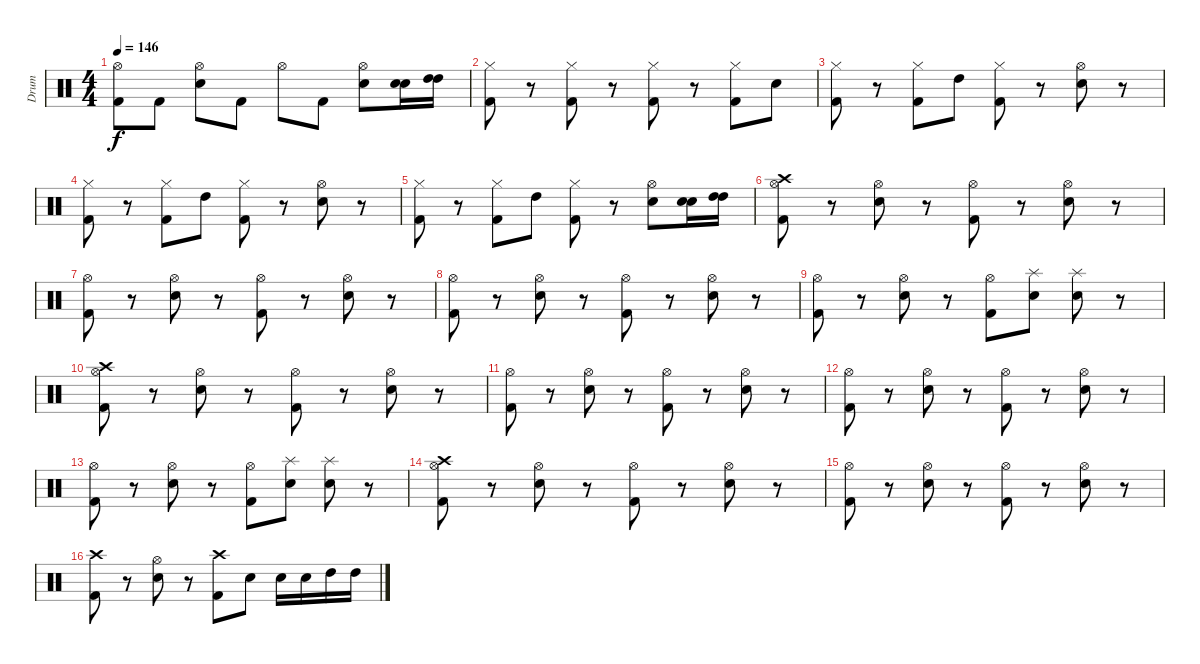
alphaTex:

\track ("Drum" "Drum") {instrument percussion}
\staff {score}
\articulation defaults
\ts (4 4)
\tempo 146
\clef neutral
\ks c
("Hi-Hat (open)" "Kick (hit) 2").8{dy f} "Kick (hit) 2".8 ("Hi-Hat (open)" "Electric Snare (hit)").8 "Kick (hit) 2".8 "Hi-Hat (open)".8 "Kick (hit) 2".8 ("Hi-Hat (open)" "Electric Snare (hit)").8 ("Electric Snare (hit)" "Electric Snare (hit)").16 ("High Tom (hit)" "High Tom (hit)").16 |
("Hi-Hat (closed)" "Kick (hit) 2").8 r.8 ("Hi-Hat (closed)" "Kick (hit) 2").8 r.8 ("Hi-Hat (closed)" "Kick (hit) 2").8 r.8 ("Hi-Hat (closed)" "Kick (hit) 2").8 "Electric Snare (hit)".8 |
("Hi-Hat (closed)" "Kick (hit) 2").8 r.8 ("Hi-Hat (closed)" "Kick (hit) 2").8 "High Tom (hit)".8 ("Hi-Hat (closed)" "Kick (hit) 2").8 r.8 ("Hi-Hat (open)" "Electric Snare (hit)").8 r.8 |
("Hi-Hat (closed)" "Kick (hit) 2").8 r.8 ("Hi-Hat (closed)" "Kick (hit) 2").8 "High Tom (hit)".8 ("Hi-Hat (closed)" "Kick (hit) 2").8 r.8 ("Hi-Hat (open)" "Electric Snare (hit)").8 r.8 |
("Hi-Hat (closed)" "Kick (hit) 2").8 r.8 ("Hi-Hat (closed)" "Kick (hit) 2").8 "High Tom (hit)".8 ("Hi-Hat (closed)" "Kick (hit) 2").8 r.8 ("Hi-Hat (open)" "Electric Snare (hit)").8 ("Electric Snare (hit)" "Electric Snare (hit)").16 ("High Tom (hit)" "High Tom (hit)").16 |
("Crash high (hit)" "Hi-Hat (open)" "Kick (hit) 2").8 r.8 ("Hi-Hat (open)" "Electric Snare (hit)").8 r.8 ("Hi-Hat (open)" "Kick (hit) 2").8 r.8 ("Hi-Hat (open)" "Electric Snare (hit)").8 r.8 |
("Hi-Hat (open)" "Kick (hit) 2").8 r.8 ("Hi-Hat (open)" "Electric Snare (hit)").8 r.8 ("Hi-Hat (open)" "Kick (hit) 2").8 r.8 ("Hi-Hat (open)" "Electric Snare (hit)").8 r.8 |
("Hi-Hat (open)" "Kick (hit) 2").8 r.8 ("Hi-Hat (open)" "Electric Snare (hit)").8 r.8 ("Hi-Hat (open)" "Kick (hit) 2").8 r.8 ("Hi-Hat (open)" "Electric Snare (hit)").8 r.8 |
("Hi-Hat (open)" "Kick (hit) 2").8 r.8 ("Hi-Hat (open)" "Electric Snare (hit)").8 r.8 ("Hi-Hat (open)" "Kick (hit) 2").8 ("Splash (hit)" "Electric Snare (hit)").8 ("Splash (hit)" "Electric Snare (hit)").8 r.8 |
("Crash high (hit)" "Hi-Hat (open)" "Kick (hit) 2").8 r.8 ("Hi-Hat (open)" "Electric Snare (hit)").8 r.8 ("Hi-Hat (open)" "Kick (hit) 2").8 r.8 ("Hi-Hat (open)" "Electric Snare (hit)").8 r.8 |
("Hi-Hat (open)" "Kick (hit) 2").8 r.8 ("Hi-Hat (open)" "Electric Snare (hit)").8 r.8 ("Hi-Hat (open)" "Kick (hit) 2").8 r.8 ("Hi-Hat (open)" "Electric Snare (hit)").8 r.8 |
("Hi-Hat (open)" "Kick (hit) 2").8 r.8 ("Hi-Hat (open)" "Electric Snare (hit)").8 r.8 ("Hi-Hat (open)" "Kick (hit) 2").8 r.8 ("Hi-Hat (open)" "Electric Snare (hit)").8 r.8 |
("Hi-Hat (open)" "Kick (hit) 2").8 r.8 ("Hi-Hat (open)" "Electric Snare (hit)").8 r.8 ("Hi-Hat (open)" "Kick (hit) 2").8 ("Splash (hit)" "Electric Snare (hit)").8 ("Splash (hit)" "Electric Snare (hit)").8 r.8 |
("Crash high (hit)" "Hi-Hat (open)" "Kick (hit) 2").8 r.8 ("Hi-Hat (open)" "Electric Snare (hit)").8 r.8 ("Hi-Hat (open)" "Kick (hit) 2").8 r.8 ("Hi-Hat (open)" "Electric Snare (hit)").8 r.8 |
("Hi-Hat (open)" "Kick (hit) 2").8 r.8 ("Hi-Hat (open)" "Electric Snare (hit)").8 r.8 ("Hi-Hat (open)" "Kick (hit) 2").8 r.8 ("Hi-Hat (open)" "Electric Snare (hit)").8 r.8 |
("Crash high (hit)" "Kick (hit) 2").8 r.8 ("Hi-Hat (open)" "Electric Snare (hit)").8 r.8 ("Crash high (hit)" "Kick (hit) 2").8 "Electric Snare (hit)".8 "Electric Snare (hit)".16 "Electric Snare (hit)".16 "High Tom (hit)".16 "High Tom (hit)".16
